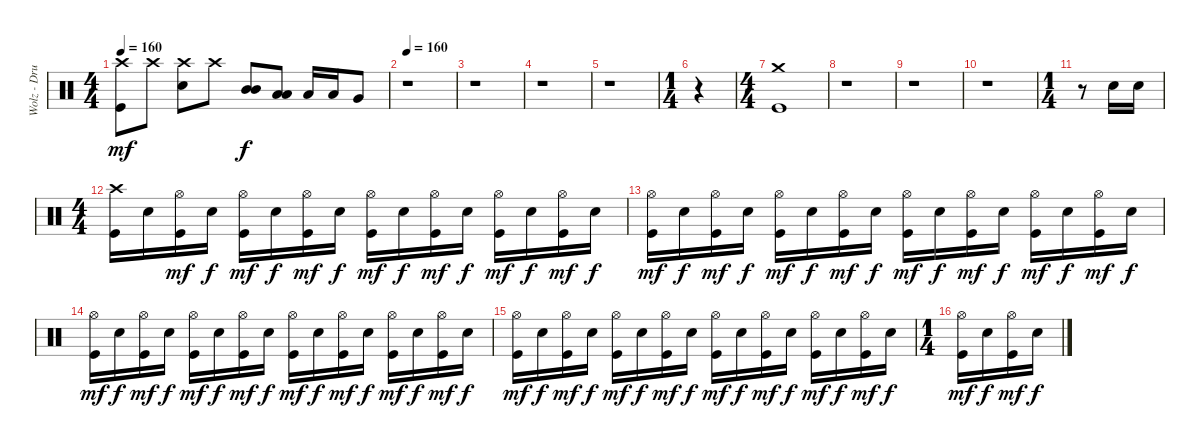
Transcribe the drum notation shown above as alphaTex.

\track ("Wolz - Drums" "Wolz - Dru") {instrument percussion}
\staff {score}
\articulation defaults
\ts (4 4)
\tempo 160
\clef neutral
\ks c
("Crash high (hit)" "Kick (hit)").8{dy mf} "Crash high (hit)".8 ("Crash high (hit)" "Electric Snare (hit)").8 "Crash high (hit)".8 ("Mid Tom (hit)" "Mid Tom (hit)").8{bu 60 dy f} ("Low Tom (hit)" "Low Tom (hit)").8{bu 60} "Low Tom (hit)".16 "Low Tom (hit)".16 "Very Low Tom (hit)".8 |
\tempo 160
r.1 |
r.1 |
r.1 |
r.1 |
\ts (1 4)
r.4 |
\ts (4 4)
("Crash medium (hit)" "Kick (hit)").1 |
r.1 |
r.1 |
r.1 |
\ts (1 4)
r.8 "Electric Snare (hit)".16 "Electric Snare (hit)".16 |
\ts (4 4)
("Crash high (hit)" "Kick (hit)").16 "Electric Snare (hit)".16 ("Hi-Hat (open)" "Kick (hit)").16{dy mf} "Electric Snare (hit)".16{dy f} ("Hi-Hat (open)" "Kick (hit)").16{dy mf} "Electric Snare (hit)".16{dy f} ("Hi-Hat (open)" "Kick (hit)").16{dy mf} "Electric Snare (hit)".16{dy f} ("Hi-Hat (open)" "Kick (hit)").16{dy mf} "Electric Snare (hit)".16{dy f} ("Hi-Hat (open)" "Kick (hit)").16{dy mf} "Electric Snare (hit)".16{dy f} ("Hi-Hat (open)" "Kick (hit)").16{dy mf} "Electric Snare (hit)".16{dy f} ("Hi-Hat (open)" "Kick (hit)").16{dy mf} "Electric Snare (hit)".16{dy f} |
("Hi-Hat (open)" "Kick (hit)").16{dy mf} "Electric Snare (hit)".16{dy f} ("Hi-Hat (open)" "Kick (hit)").16{dy mf} "Electric Snare (hit)".16{dy f} ("Hi-Hat (open)" "Kick (hit)").16{dy mf} "Electric Snare (hit)".16{dy f} ("Hi-Hat (open)" "Kick (hit)").16{dy mf} "Electric Snare (hit)".16{dy f} ("Hi-Hat (open)" "Kick (hit)").16{dy mf} "Electric Snare (hit)".16{dy f} ("Hi-Hat (open)" "Kick (hit)").16{dy mf} "Electric Snare (hit)".16{dy f} ("Hi-Hat (open)" "Kick (hit)").16{dy mf} "Electric Snare (hit)".16{dy f} ("Hi-Hat (open)" "Kick (hit)").16{dy mf} "Electric Snare (hit)".16{dy f} |
("Hi-Hat (open)" "Kick (hit)").16{dy mf} "Electric Snare (hit)".16{dy f} ("Hi-Hat (open)" "Kick (hit)").16{dy mf} "Electric Snare (hit)".16{dy f} ("Hi-Hat (open)" "Kick (hit)").16{dy mf} "Electric Snare (hit)".16{dy f} ("Hi-Hat (open)" "Kick (hit)").16{dy mf} "Electric Snare (hit)".16{dy f} ("Hi-Hat (open)" "Kick (hit)").16{dy mf} "Electric Snare (hit)".16{dy f} ("Hi-Hat (open)" "Kick (hit)").16{dy mf} "Electric Snare (hit)".16{dy f} ("Hi-Hat (open)" "Kick (hit)").16{dy mf} "Electric Snare (hit)".16{dy f} ("Hi-Hat (open)" "Kick (hit)").16{dy mf} "Electric Snare (hit)".16{dy f} |
("Hi-Hat (open)" "Kick (hit)").16{dy mf} "Electric Snare (hit)".16{dy f} ("Hi-Hat (open)" "Kick (hit)").16{dy mf} "Electric Snare (hit)".16{dy f} ("Hi-Hat (open)" "Kick (hit)").16{dy mf} "Electric Snare (hit)".16{dy f} ("Hi-Hat (open)" "Kick (hit)").16{dy mf} "Electric Snare (hit)".16{dy f} ("Hi-Hat (open)" "Kick (hit)").16{dy mf} "Electric Snare (hit)".16{dy f} ("Hi-Hat (open)" "Kick (hit)").16{dy mf} "Electric Snare (hit)".16{dy f} ("Hi-Hat (open)" "Kick (hit)").16{dy mf} "Electric Snare (hit)".16{dy f} ("Hi-Hat (open)" "Kick (hit)").16{dy mf} "Electric Snare (hit)".16{dy f} |
\ts (1 4)
("Hi-Hat (open)" "Kick (hit)").16{dy mf} "Electric Snare (hit)".16{dy f} ("Hi-Hat (open)" "Kick (hit)").16{dy mf} "Electric Snare (hit)".16{dy f}
